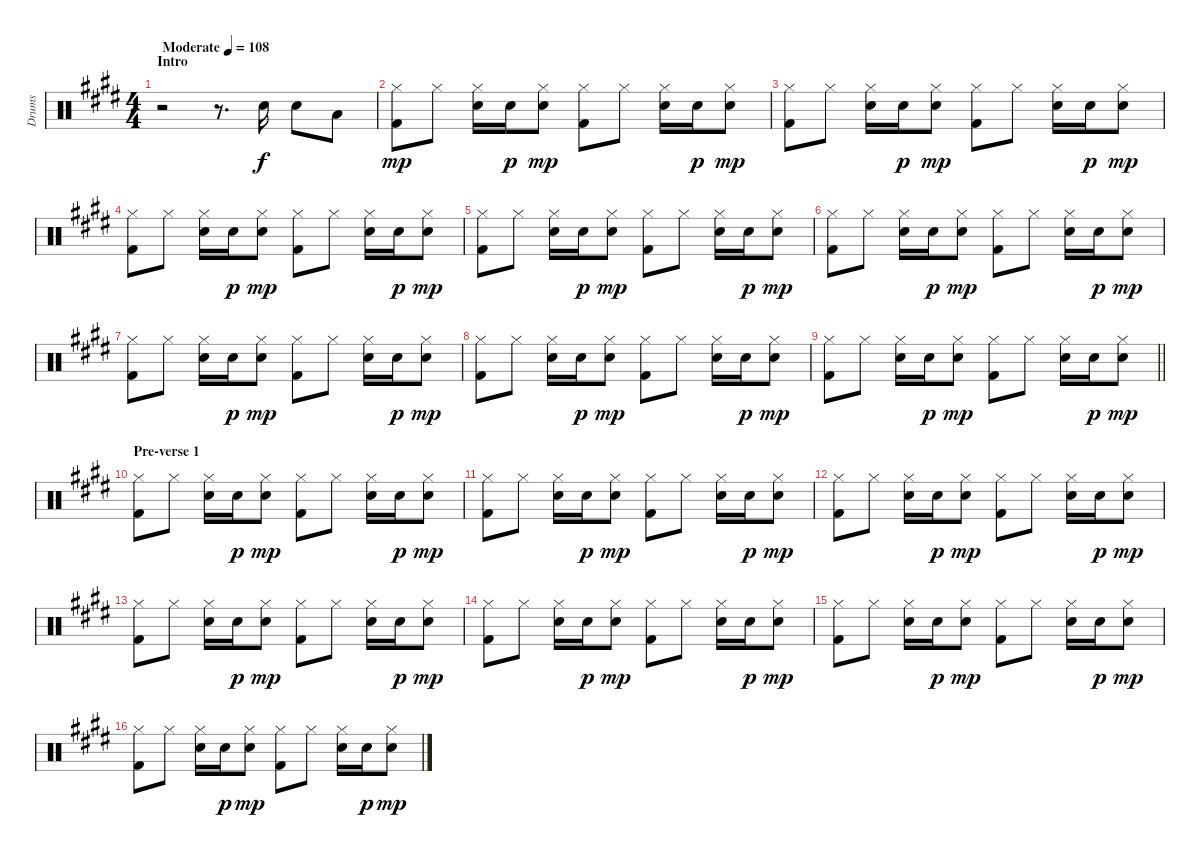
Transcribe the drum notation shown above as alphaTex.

\track ("Drums" "Drums") {instrument percussion bank 7}
\staff {score}
\articulation defaults
\ts (4 4)
\section ("" "Intro")
\tempo (108 "Moderate")
\clef neutral
\ks e
r.2{dy f} r.8{d} "Electric Snare (hit)".16 "Electric Snare (hit)".8 "Low Tom (hit)".8 |
("Hi-Hat (closed)" "Kick (hit) 2").8{dy mp} "Hi-Hat (closed)".8 ("Electric Snare (hit)" "Hi-Hat (closed)").16 "Electric Snare (hit)".16{dy p} ("Electric Snare (hit)" "Hi-Hat (closed)").8{dy mp} ("Hi-Hat (closed)" "Kick (hit) 2").8 "Hi-Hat (closed)".8 ("Electric Snare (hit)" "Hi-Hat (closed)").16 "Electric Snare (hit)".16{dy p} ("Electric Snare (hit)" "Hi-Hat (closed)").8{dy mp} |
("Hi-Hat (closed)" "Kick (hit) 2").8 "Hi-Hat (closed)".8 ("Electric Snare (hit)" "Hi-Hat (closed)").16 "Electric Snare (hit)".16{dy p} ("Electric Snare (hit)" "Hi-Hat (closed)").8{dy mp} ("Hi-Hat (closed)" "Kick (hit) 2").8 "Hi-Hat (closed)".8 ("Electric Snare (hit)" "Hi-Hat (closed)").16 "Electric Snare (hit)".16{dy p} ("Electric Snare (hit)" "Hi-Hat (closed)").8{dy mp} |
("Hi-Hat (closed)" "Kick (hit) 2").8 "Hi-Hat (closed)".8 ("Electric Snare (hit)" "Hi-Hat (closed)").16 "Electric Snare (hit)".16{dy p} ("Electric Snare (hit)" "Hi-Hat (closed)").8{dy mp} ("Hi-Hat (closed)" "Kick (hit) 2").8 "Hi-Hat (closed)".8 ("Electric Snare (hit)" "Hi-Hat (closed)").16 "Electric Snare (hit)".16{dy p} ("Electric Snare (hit)" "Hi-Hat (closed)").8{dy mp} |
("Hi-Hat (closed)" "Kick (hit) 2").8 "Hi-Hat (closed)".8 ("Electric Snare (hit)" "Hi-Hat (closed)").16 "Electric Snare (hit)".16{dy p} ("Electric Snare (hit)" "Hi-Hat (closed)").8{dy mp} ("Hi-Hat (closed)" "Kick (hit) 2").8 "Hi-Hat (closed)".8 ("Electric Snare (hit)" "Hi-Hat (closed)").16 "Electric Snare (hit)".16{dy p} ("Electric Snare (hit)" "Hi-Hat (closed)").8{dy mp} |
("Hi-Hat (closed)" "Kick (hit) 2").8 "Hi-Hat (closed)".8 ("Electric Snare (hit)" "Hi-Hat (closed)").16 "Electric Snare (hit)".16{dy p} ("Electric Snare (hit)" "Hi-Hat (closed)").8{dy mp} ("Hi-Hat (closed)" "Kick (hit) 2").8 "Hi-Hat (closed)".8 ("Electric Snare (hit)" "Hi-Hat (closed)").16 "Electric Snare (hit)".16{dy p} ("Electric Snare (hit)" "Hi-Hat (closed)").8{dy mp} |
("Hi-Hat (closed)" "Kick (hit) 2").8 "Hi-Hat (closed)".8 ("Electric Snare (hit)" "Hi-Hat (closed)").16 "Electric Snare (hit)".16{dy p} ("Electric Snare (hit)" "Hi-Hat (closed)").8{dy mp} ("Hi-Hat (closed)" "Kick (hit) 2").8 "Hi-Hat (closed)".8 ("Electric Snare (hit)" "Hi-Hat (closed)").16 "Electric Snare (hit)".16{dy p} ("Electric Snare (hit)" "Hi-Hat (closed)").8{dy mp} |
("Hi-Hat (closed)" "Kick (hit) 2").8 "Hi-Hat (closed)".8 ("Electric Snare (hit)" "Hi-Hat (closed)").16 "Electric Snare (hit)".16{dy p} ("Electric Snare (hit)" "Hi-Hat (closed)").8{dy mp} ("Hi-Hat (closed)" "Kick (hit) 2").8 "Hi-Hat (closed)".8 ("Electric Snare (hit)" "Hi-Hat (closed)").16 "Electric Snare (hit)".16{dy p} ("Electric Snare (hit)" "Hi-Hat (closed)").8{dy mp} |
\barLineRight lightlight
("Hi-Hat (closed)" "Kick (hit) 2").8 "Hi-Hat (closed)".8 ("Electric Snare (hit)" "Hi-Hat (closed)").16 "Electric Snare (hit)".16{dy p} ("Electric Snare (hit)" "Hi-Hat (closed)").8{dy mp} ("Hi-Hat (closed)" "Kick (hit) 2").8 "Hi-Hat (closed)".8 ("Electric Snare (hit)" "Hi-Hat (closed)").16 "Electric Snare (hit)".16{dy p} ("Electric Snare (hit)" "Hi-Hat (closed)").8{dy mp} |
\section ("" "Pre-verse 1")
("Hi-Hat (closed)" "Kick (hit) 2").8 "Hi-Hat (closed)".8 ("Electric Snare (hit)" "Hi-Hat (closed)").16 "Electric Snare (hit)".16{dy p} ("Electric Snare (hit)" "Hi-Hat (closed)").8{dy mp} ("Hi-Hat (closed)" "Kick (hit) 2").8 "Hi-Hat (closed)".8 ("Electric Snare (hit)" "Hi-Hat (closed)").16 "Electric Snare (hit)".16{dy p} ("Electric Snare (hit)" "Hi-Hat (closed)").8{dy mp} |
("Hi-Hat (closed)" "Kick (hit) 2").8 "Hi-Hat (closed)".8 ("Electric Snare (hit)" "Hi-Hat (closed)").16 "Electric Snare (hit)".16{dy p} ("Electric Snare (hit)" "Hi-Hat (closed)").8{dy mp} ("Hi-Hat (closed)" "Kick (hit) 2").8 "Hi-Hat (closed)".8 ("Electric Snare (hit)" "Hi-Hat (closed)").16 "Electric Snare (hit)".16{dy p} ("Electric Snare (hit)" "Hi-Hat (closed)").8{dy mp} |
("Hi-Hat (closed)" "Kick (hit) 2").8 "Hi-Hat (closed)".8 ("Electric Snare (hit)" "Hi-Hat (closed)").16 "Electric Snare (hit)".16{dy p} ("Electric Snare (hit)" "Hi-Hat (closed)").8{dy mp} ("Hi-Hat (closed)" "Kick (hit) 2").8 "Hi-Hat (closed)".8 ("Electric Snare (hit)" "Hi-Hat (closed)").16 "Electric Snare (hit)".16{dy p} ("Electric Snare (hit)" "Hi-Hat (closed)").8{dy mp} |
("Hi-Hat (closed)" "Kick (hit) 2").8 "Hi-Hat (closed)".8 ("Electric Snare (hit)" "Hi-Hat (closed)").16 "Electric Snare (hit)".16{dy p} ("Electric Snare (hit)" "Hi-Hat (closed)").8{dy mp} ("Hi-Hat (closed)" "Kick (hit) 2").8 "Hi-Hat (closed)".8 ("Electric Snare (hit)" "Hi-Hat (closed)").16 "Electric Snare (hit)".16{dy p} ("Electric Snare (hit)" "Hi-Hat (closed)").8{dy mp} |
("Hi-Hat (closed)" "Kick (hit) 2").8 "Hi-Hat (closed)".8 ("Electric Snare (hit)" "Hi-Hat (closed)").16 "Electric Snare (hit)".16{dy p} ("Electric Snare (hit)" "Hi-Hat (closed)").8{dy mp} ("Hi-Hat (closed)" "Kick (hit) 2").8 "Hi-Hat (closed)".8 ("Electric Snare (hit)" "Hi-Hat (closed)").16 "Electric Snare (hit)".16{dy p} ("Electric Snare (hit)" "Hi-Hat (closed)").8{dy mp} |
("Hi-Hat (closed)" "Kick (hit) 2").8 "Hi-Hat (closed)".8 ("Electric Snare (hit)" "Hi-Hat (closed)").16 "Electric Snare (hit)".16{dy p} ("Electric Snare (hit)" "Hi-Hat (closed)").8{dy mp} ("Hi-Hat (closed)" "Kick (hit) 2").8 "Hi-Hat (closed)".8 ("Electric Snare (hit)" "Hi-Hat (closed)").16 "Electric Snare (hit)".16{dy p} ("Electric Snare (hit)" "Hi-Hat (closed)").8{dy mp} |
("Hi-Hat (closed)" "Kick (hit) 2").8 "Hi-Hat (closed)".8 ("Electric Snare (hit)" "Hi-Hat (closed)").16 "Electric Snare (hit)".16{dy p} ("Electric Snare (hit)" "Hi-Hat (closed)").8{dy mp} ("Hi-Hat (closed)" "Kick (hit) 2").8 "Hi-Hat (closed)".8 ("Electric Snare (hit)" "Hi-Hat (closed)").16 "Electric Snare (hit)".16{dy p} ("Electric Snare (hit)" "Hi-Hat (closed)").8{dy mp}
